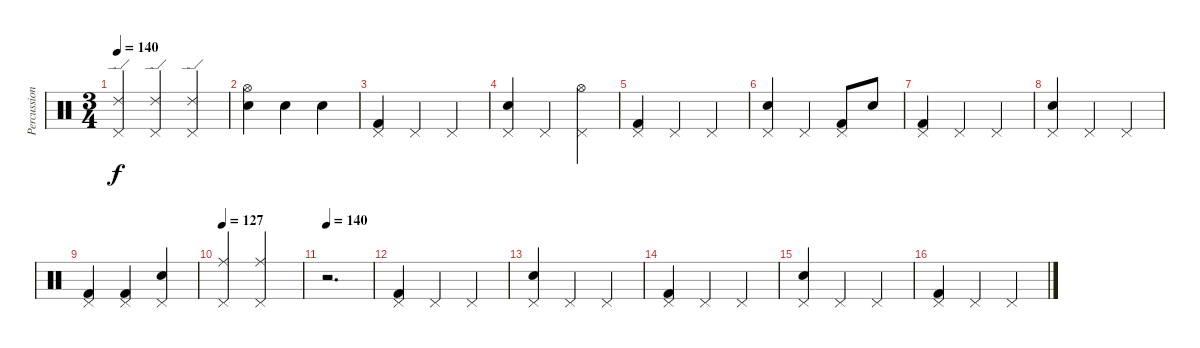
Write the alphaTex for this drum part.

\track ("Percussion" "Percussion") {instrument percussion}
\staff {score}
\articulation defaults
\ts (3 4)
\tempo 140
\clef neutral
\ks c
("Pedal Hi-Hat (hit)" "Ride (edge) 2").4{dy f} ("Pedal Hi-Hat (hit)" "Ride (edge) 2").4 ("Pedal Hi-Hat (hit)" "Ride (edge) 2").4 |
("Hi-Hat (open)" "Snare (hit) 2").4 "Snare (hit) 2".4 "Snare (hit) 2".4 |
("Pedal Hi-Hat (hit)" "Kick (hit) 2").4 "Pedal Hi-Hat (hit)".4 "Pedal Hi-Hat (hit)".4 |
("Pedal Hi-Hat (hit)" "Snare (hit) 2").4 "Pedal Hi-Hat (hit)".4 ("Pedal Hi-Hat (hit)" "Hi-Hat (open)").4 |
("Pedal Hi-Hat (hit)" "Kick (hit) 2").4 "Pedal Hi-Hat (hit)".4 "Pedal Hi-Hat (hit)".4 |
("Pedal Hi-Hat (hit)" "Snare (hit) 2").4 "Pedal Hi-Hat (hit)".4 ("Pedal Hi-Hat (hit)" "Kick (hit) 2").8 "Snare (hit) 2".8 |
("Pedal Hi-Hat (hit)" "Kick (hit) 2").4 "Pedal Hi-Hat (hit)".4 "Pedal Hi-Hat (hit)".4 |
("Pedal Hi-Hat (hit)" "Snare (hit) 2").4 "Pedal Hi-Hat (hit)".4 "Pedal Hi-Hat (hit)".4 |
("Pedal Hi-Hat (hit)" "Kick (hit) 2").4 ("Pedal Hi-Hat (hit)" "Kick (hit) 2").4 ("Pedal Hi-Hat (hit)" "Snare (hit) 2").4 |
\tempo 127
("Ride (middle)" "Pedal Hi-Hat (hit)").4 ("Ride (middle)" "Pedal Hi-Hat (hit)").2 |
\tempo 140
r.2{d} |
("Pedal Hi-Hat (hit)" "Kick (hit) 2").4 "Pedal Hi-Hat (hit)".4 "Pedal Hi-Hat (hit)".4 |
("Pedal Hi-Hat (hit)" "Snare (hit) 2").4 "Pedal Hi-Hat (hit)".4 "Pedal Hi-Hat (hit)".4 |
("Pedal Hi-Hat (hit)" "Kick (hit) 2").4 "Pedal Hi-Hat (hit)".4 "Pedal Hi-Hat (hit)".4 |
("Pedal Hi-Hat (hit)" "Snare (hit) 2").4 "Pedal Hi-Hat (hit)".4 "Pedal Hi-Hat (hit)".4 |
("Pedal Hi-Hat (hit)" "Kick (hit) 2").4 "Pedal Hi-Hat (hit)".4 "Pedal Hi-Hat (hit)".4
